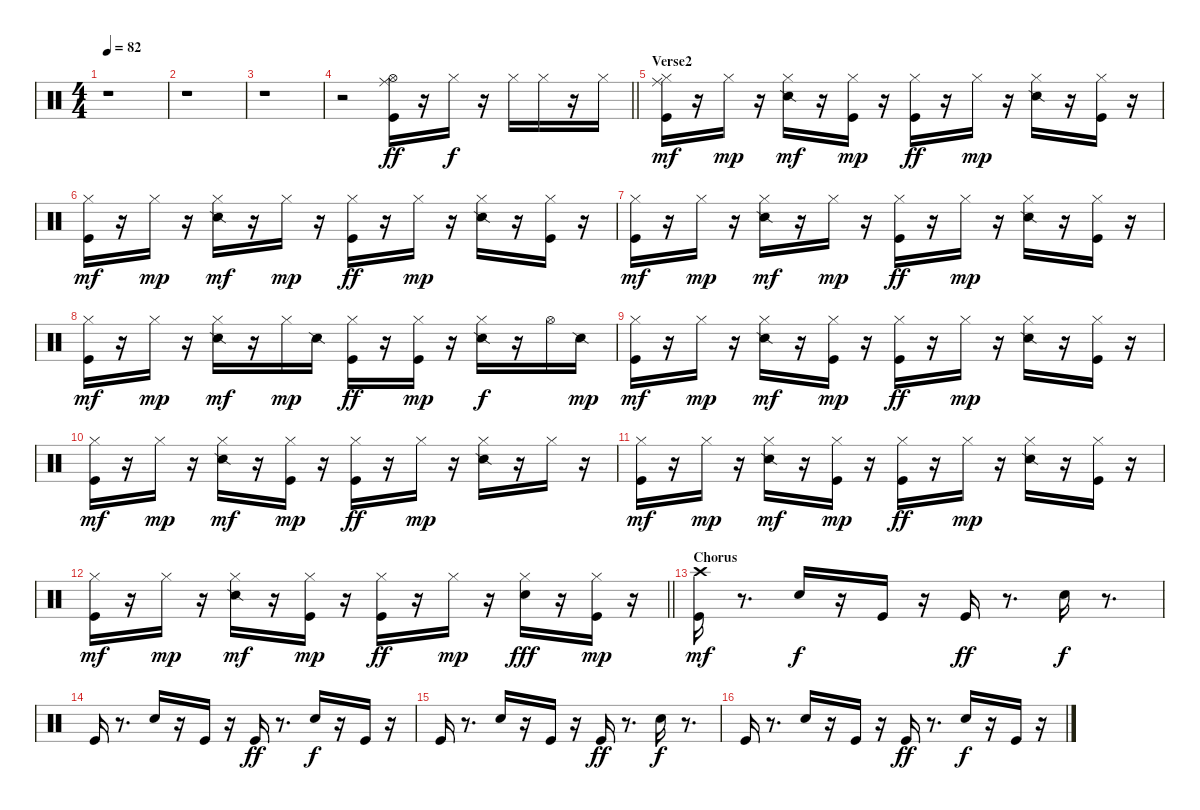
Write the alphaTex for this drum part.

\track "" {instrument percussion}
\staff {score}
\articulation defaults
\ts (4 4)
\tempo 82
\clef neutral
\ks c
r.1{dy ff} |
r.1 |
r.1 |
\barLineRight lightlight
r.2 ("Hi-Hat (open)" "Ride (middle)" "Kick (hit)").16 r.16 "Hi-Hat (closed)".16{dy f} r.16 "Hi-Hat (closed)".16 "Hi-Hat (closed)".16 r.16 "Hi-Hat (closed)".16 |
\section ("" "Verse2")
("Ride (middle)" "Hi-Hat (closed)" "Kick (hit)").16{dy mf} r.16 "Hi-Hat (closed)".16{dy mp} r.16 ("Snare (side stick) 2" "Hi-Hat (closed)").16{dy mf} r.16 ("Kick (hit)" "Hi-Hat (closed)").16{dy mp} r.16 ("Hi-Hat (closed)" "Kick (hit)").16{dy ff} r.16 "Hi-Hat (closed)".16{dy mp} r.16 ("Snare (side stick) 2" "Hi-Hat (closed)").16 r.16 ("Hi-Hat (closed)" "Kick (hit)").16 r.16 |
("Hi-Hat (closed)" "Kick (hit)").16{dy mf} r.16 "Hi-Hat (closed)".16{dy mp} r.16 ("Snare (side stick) 2" "Hi-Hat (closed)").16{dy mf} r.16 "Hi-Hat (closed)".16{dy mp} r.16 ("Hi-Hat (closed)" "Kick (hit)").16{dy ff} r.16 "Hi-Hat (closed)".16{dy mp} r.16 ("Snare (side stick) 2" "Hi-Hat (closed)").16 r.16 ("Hi-Hat (closed)" "Kick (hit)").16 r.16 |
("Hi-Hat (closed)" "Kick (hit)").16{dy mf} r.16 "Hi-Hat (closed)".16{dy mp} r.16 ("Snare (side stick) 2" "Hi-Hat (closed)").16{dy mf} r.16 "Hi-Hat (closed)".16{dy mp} r.16 ("Hi-Hat (closed)" "Kick (hit)").16{dy ff} r.16 "Hi-Hat (closed)".16{dy mp} r.16 ("Snare (side stick) 2" "Hi-Hat (closed)").16 r.16 ("Hi-Hat (closed)" "Kick (hit)").16 r.16 |
("Hi-Hat (closed)" "Kick (hit)").16{dy mf} r.16 "Hi-Hat (closed)".16{dy mp} r.16 ("Snare (side stick) 2" "Hi-Hat (closed)").16{dy mf} r.16 "Hi-Hat (closed)".16{dy mp} "Snare (side stick) 2".16 ("Hi-Hat (closed)" "Kick (hit)").16{dy ff} r.16 ("Hi-Hat (closed)" "Kick (hit)").16{dy mp} r.16 ("Snare (side stick) 2" "Hi-Hat (closed)").16{dy f} r.16 "Hi-Hat (open)".16 "Snare (side stick) 2".16{dy mp} |
("Hi-Hat (closed)" "Kick (hit)").16{dy mf} r.16 "Hi-Hat (closed)".16{dy mp} r.16 ("Snare (side stick) 2" "Hi-Hat (closed)").16{dy mf} r.16 ("Kick (hit)" "Hi-Hat (closed)").16{dy mp} r.16 ("Hi-Hat (closed)" "Kick (hit)").16{dy ff} r.16 "Hi-Hat (closed)".16{dy mp} r.16 ("Snare (side stick) 2" "Hi-Hat (closed)").16 r.16 ("Hi-Hat (closed)" "Kick (hit)").16 r.16 |
("Hi-Hat (closed)" "Kick (hit)").16{dy mf} r.16 "Hi-Hat (closed)".16{dy mp} r.16 ("Snare (side stick) 2" "Hi-Hat (closed)").16{dy mf} r.16 ("Kick (hit)" "Hi-Hat (closed)").16{dy mp} r.16 ("Hi-Hat (closed)" "Kick (hit)").16{dy ff} r.16 "Hi-Hat (closed)".16{dy mp} r.16 ("Snare (side stick) 2" "Hi-Hat (closed)").16 r.16 "Hi-Hat (closed)".16 r.16 |
("Hi-Hat (closed)" "Kick (hit)").16{dy mf} r.16 "Hi-Hat (closed)".16{dy mp} r.16 ("Snare (side stick) 2" "Hi-Hat (closed)").16{dy mf} r.16 ("Kick (hit)" "Hi-Hat (closed)").16{dy mp} r.16 ("Hi-Hat (closed)" "Kick (hit)").16{dy ff} r.16 "Hi-Hat (closed)".16{dy mp} r.16 ("Snare (side stick) 2" "Hi-Hat (closed)").16 r.16 ("Hi-Hat (closed)" "Kick (hit)").16 r.16 |
\barLineRight lightlight
("Hi-Hat (closed)" "Kick (hit)").16{dy mf} r.16 "Hi-Hat (closed)".16{dy mp} r.16 ("Snare (side stick) 2" "Hi-Hat (closed)").16{dy mf} r.16 ("Kick (hit)" "Hi-Hat (closed)").16{dy mp} r.16 ("Hi-Hat (closed)" "Kick (hit)").16{dy ff} r.16 "Hi-Hat (closed)".16{dy mp} r.16 ("Electric Snare (hit)" "Hi-Hat (closed)").16{dy fff} r.16 ("Hi-Hat (closed)" "Kick (hit)").16{dy mp} r.16 |
\section ("" "Chorus")
("Crash high (hit)" "Kick (hit)").16{dy mf} r.8{d} "Electric Snare (hit)".16{dy f} r.16 "Kick (hit)".16 r.16 "Kick (hit)".16{dy ff} r.8{d} "Electric Snare (hit)".16{dy f} r.8{d} |
"Kick (hit)".16 r.8{d} "Electric Snare (hit)".16 r.16 "Kick (hit)".16 r.16 "Kick (hit)".16{dy ff} r.8{d} "Electric Snare (hit)".16{dy f} r.16 "Kick (hit)".16 r.16 |
"Kick (hit)".16 r.8{d} "Electric Snare (hit)".16 r.16 "Kick (hit)".16 r.16 "Kick (hit)".16{dy ff} r.8{d} "Electric Snare (hit)".16{dy f} r.8{d} |
"Kick (hit)".16 r.8{d} "Electric Snare (hit)".16 r.16 "Kick (hit)".16 r.16 "Kick (hit)".16{dy ff} r.8{d} "Electric Snare (hit)".16{dy f} r.16 "Kick (hit)".16 r.16
